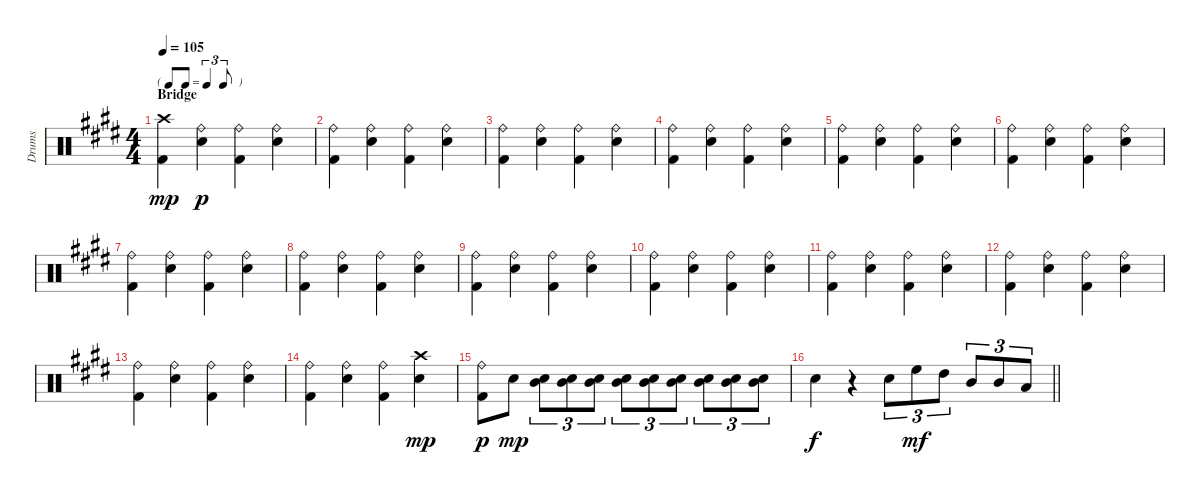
\track ("Drums" "Drums") {instrument percussion}
\staff {score}
\articulation defaults
\ts (4 4)
\tf triplet8th
\section ("" "Bridge")
\tempo 105
\clef neutral
\ks e
("Crash high (hit)" "Kick (hit) 2").4{dy mp} ("Ride (bell)" "Electric Snare (hit)").4{dy p} ("Ride (bell)" "Kick (hit) 2").4 ("Ride (bell)" "Electric Snare (hit)").4 |
\ks c#minor
("Ride (bell)" "Kick (hit) 2").4 ("Ride (bell)" "Electric Snare (hit)").4 ("Ride (bell)" "Kick (hit) 2").4 ("Ride (bell)" "Electric Snare (hit)").4 |
("Ride (bell)" "Kick (hit) 2").4 ("Ride (bell)" "Electric Snare (hit)").4 ("Ride (bell)" "Kick (hit) 2").4 ("Ride (bell)" "Electric Snare (hit)").4 |
("Ride (bell)" "Kick (hit) 2").4 ("Ride (bell)" "Electric Snare (hit)").4 ("Ride (bell)" "Kick (hit) 2").4 ("Ride (bell)" "Electric Snare (hit)").4 |
\ks e
("Ride (bell)" "Kick (hit) 2").4 ("Ride (bell)" "Electric Snare (hit)").4 ("Ride (bell)" "Kick (hit) 2").4 ("Ride (bell)" "Electric Snare (hit)").4 |
\ks c#minor
("Ride (bell)" "Kick (hit) 2").4 ("Ride (bell)" "Electric Snare (hit)").4 ("Ride (bell)" "Kick (hit) 2").4 ("Ride (bell)" "Electric Snare (hit)").4 |
("Ride (bell)" "Kick (hit) 2").4 ("Ride (bell)" "Electric Snare (hit)").4 ("Ride (bell)" "Kick (hit) 2").4 ("Ride (bell)" "Electric Snare (hit)").4 |
("Ride (bell)" "Kick (hit) 2").4 ("Ride (bell)" "Electric Snare (hit)").4 ("Ride (bell)" "Kick (hit) 2").4 ("Ride (bell)" "Electric Snare (hit)").4 |
("Ride (bell)" "Kick (hit) 2").4 ("Ride (bell)" "Electric Snare (hit)").4 ("Ride (bell)" "Kick (hit) 2").4 ("Ride (bell)" "Electric Snare (hit)").4 |
("Ride (bell)" "Kick (hit) 2").4 ("Ride (bell)" "Electric Snare (hit)").4 ("Ride (bell)" "Kick (hit) 2").4 ("Ride (bell)" "Electric Snare (hit)").4 |
("Ride (bell)" "Kick (hit) 2").4 ("Ride (bell)" "Electric Snare (hit)").4 ("Ride (bell)" "Kick (hit) 2").4 ("Ride (bell)" "Electric Snare (hit)").4 |
("Ride (bell)" "Kick (hit) 2").4 ("Ride (bell)" "Electric Snare (hit)").4 ("Ride (bell)" "Kick (hit) 2").4 ("Ride (bell)" "Electric Snare (hit)").4 |
("Ride (bell)" "Kick (hit) 2").4 ("Ride (bell)" "Electric Snare (hit)").4 ("Ride (bell)" "Kick (hit) 2").4 ("Ride (bell)" "Electric Snare (hit)").4 |
("Ride (bell)" "Kick (hit) 2").4 ("Ride (bell)" "Electric Snare (hit)").4 ("Ride (bell)" "Kick (hit) 2").4 ("Crash high (hit)" "Electric Snare (hit)").4{dy mp} |
\ks e
("Ride (bell)" "Kick (hit) 2").8{dy p} "Electric Snare (hit)".8{dy mp} ("Electric Snare (hit)" "Mid Tom (hit)").8{tu (3 2)} ("Electric Snare (hit)" "Mid Tom (hit)").8{tu (3 2)} ("Electric Snare (hit)" "Mid Tom (hit)").8{tu (3 2)} ("Electric Snare (hit)" "Mid Tom (hit)").8{tu (3 2)} ("Electric Snare (hit)" "Mid Tom (hit)").8{tu (3 2)} ("Electric Snare (hit)" "Mid Tom (hit)").8{tu (3 2)} ("Electric Snare (hit)" "Mid Tom (hit)").8{tu (3 2)} ("Electric Snare (hit)" "Mid Tom (hit)").8{tu (3 2)} ("Electric Snare (hit)" "Mid Tom (hit)").8{tu (3 2)} |
\barLineRight lightlight
\ks c#minor "Electric Snare (hit)".4{dy f}
r.4 "Electric Snare (hit)".8{tu (3 2)} "High Floor Tom (hit)".8{tu (3 2) dy mf} "High Tom (hit)".8{tu (3 2)} "Mid Tom (hit)".8{tu (3 2)} "Mid Tom (hit)".8{tu (3 2)} "Low Tom (hit)".8{tu (3 2)}
